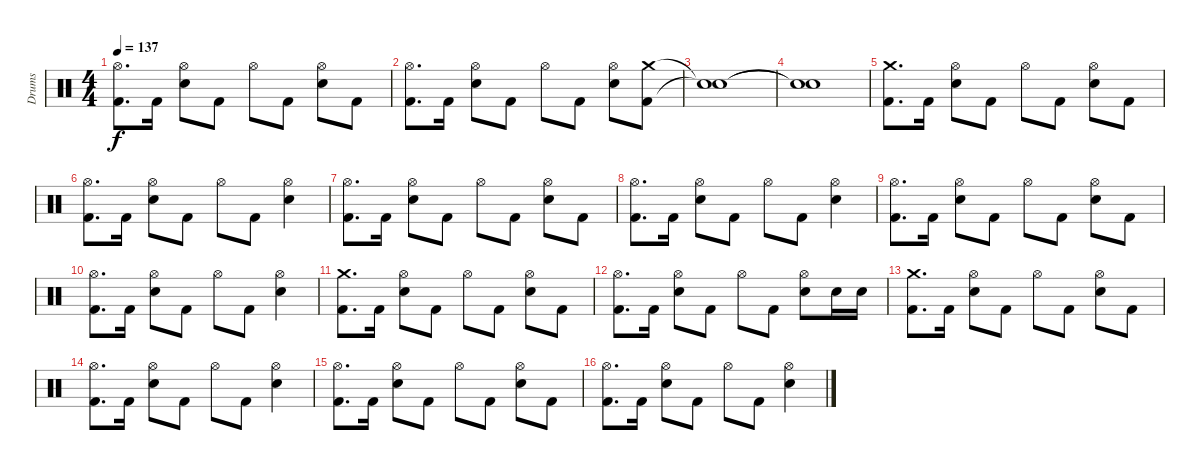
\track ("Drums" "Drums") {instrument percussion}
\staff {score}
\articulation defaults
\ts (4 4)
\tempo 137
\clef neutral
\ks c
("Hi-Hat (open)" "Kick (hit) 2").8{d dy f} "Kick (hit) 2".16 ("Hi-Hat (open)" "Electric Snare (hit)").8 "Kick (hit) 2".8 "Hi-Hat (open)".8 "Kick (hit) 2".8 ("Hi-Hat (open)" "Electric Snare (hit)").8 "Kick (hit) 2".8 |
("Hi-Hat (open)" "Kick (hit) 2").8{d} "Kick (hit) 2".16 ("Hi-Hat (open)" "Electric Snare (hit)").8 "Kick (hit) 2".8 "Hi-Hat (open)".8 "Kick (hit) 2".8 ("Hi-Hat (open)" "Electric Snare (hit)").8 ("Kick (hit) 2" "Crash medium (hit)").8 |
("Snare (hit)"{t} "Snare (hit)"{t}).1 |
("Snare (hit)"{t} "Snare (hit)"{t}).1 |
("Crash medium (hit)" "Kick (hit) 2").8{d} "Kick (hit) 2".16 ("Hi-Hat (open)" "Electric Snare (hit)").8 "Kick (hit) 2".8 "Hi-Hat (open)".8 "Kick (hit) 2".8 ("Hi-Hat (open)" "Electric Snare (hit)").8 "Kick (hit) 2".8 |
("Hi-Hat (open)" "Kick (hit) 2").8{d} "Kick (hit) 2".16 ("Hi-Hat (open)" "Electric Snare (hit)").8 "Kick (hit) 2".8 "Hi-Hat (open)".8 "Kick (hit) 2".8 ("Hi-Hat (open)" "Electric Snare (hit)").4 |
("Hi-Hat (open)" "Kick (hit) 2").8{d} "Kick (hit) 2".16 ("Hi-Hat (open)" "Electric Snare (hit)").8 "Kick (hit) 2".8 "Hi-Hat (open)".8 "Kick (hit) 2".8 ("Hi-Hat (open)" "Electric Snare (hit)").8 "Kick (hit) 2".8 |
("Hi-Hat (open)" "Kick (hit) 2").8{d} "Kick (hit) 2".16 ("Hi-Hat (open)" "Electric Snare (hit)").8 "Kick (hit) 2".8 "Hi-Hat (open)".8 "Kick (hit) 2".8 ("Hi-Hat (open)" "Electric Snare (hit)").4 |
("Hi-Hat (open)" "Kick (hit) 2").8{d} "Kick (hit) 2".16 ("Hi-Hat (open)" "Electric Snare (hit)").8 "Kick (hit) 2".8 "Hi-Hat (open)".8 "Kick (hit) 2".8 ("Hi-Hat (open)" "Electric Snare (hit)").8 "Kick (hit) 2".8 |
("Hi-Hat (open)" "Kick (hit) 2").8{d} "Kick (hit) 2".16 ("Hi-Hat (open)" "Electric Snare (hit)").8 "Kick (hit) 2".8 "Hi-Hat (open)".8 "Kick (hit) 2".8 ("Hi-Hat (open)" "Electric Snare (hit)").4 |
("Crash medium (hit)" "Kick (hit) 2").8{d} "Kick (hit) 2".16 ("Hi-Hat (open)" "Electric Snare (hit)").8 "Kick (hit) 2".8 "Hi-Hat (open)".8 "Kick (hit) 2".8 ("Hi-Hat (open)" "Electric Snare (hit)").8 "Kick (hit) 2".8 |
("Hi-Hat (open)" "Kick (hit) 2").8{d} "Kick (hit) 2".16 ("Hi-Hat (open)" "Electric Snare (hit)").8 "Kick (hit) 2".8 "Hi-Hat (open)".8 "Kick (hit) 2".8 ("Hi-Hat (open)" "Electric Snare (hit)").8 "Electric Snare (hit)".16 "Electric Snare (hit)".16 |
("Crash medium (hit)" "Kick (hit) 2").8{d} "Kick (hit) 2".16 ("Hi-Hat (open)" "Electric Snare (hit)").8 "Kick (hit) 2".8 "Hi-Hat (open)".8 "Kick (hit) 2".8 ("Hi-Hat (open)" "Electric Snare (hit)").8 "Kick (hit) 2".8 |
("Hi-Hat (open)" "Kick (hit) 2").8{d} "Kick (hit) 2".16 ("Hi-Hat (open)" "Electric Snare (hit)").8 "Kick (hit) 2".8 "Hi-Hat (open)".8 "Kick (hit) 2".8 ("Hi-Hat (open)" "Electric Snare (hit)").4 |
("Hi-Hat (open)" "Kick (hit) 2").8{d} "Kick (hit) 2".16 ("Hi-Hat (open)" "Electric Snare (hit)").8 "Kick (hit) 2".8 "Hi-Hat (open)".8 "Kick (hit) 2".8 ("Hi-Hat (open)" "Electric Snare (hit)").8 "Kick (hit) 2".8 |
("Hi-Hat (open)" "Kick (hit) 2").8{d} "Kick (hit) 2".16 ("Hi-Hat (open)" "Electric Snare (hit)").8 "Kick (hit) 2".8 "Hi-Hat (open)".8 "Kick (hit) 2".8 ("Hi-Hat (open)" "Electric Snare (hit)").4
